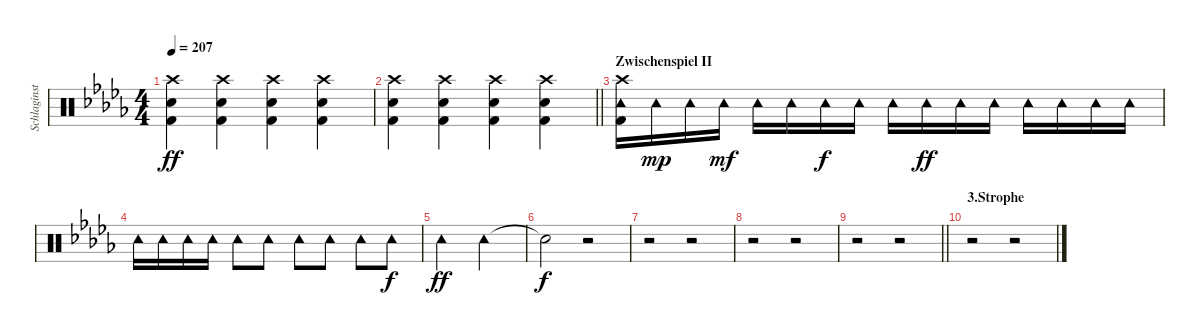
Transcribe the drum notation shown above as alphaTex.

\track ("Schlaginstrumente - Auswahl" "Schlaginst") {instrument percussion}
\staff {score}
\articulation defaults
\ts (4 4)
\tempo 207
\clef neutral
\ks bbminor
("Crash high (hit)" "Snare (hit) 2" "Kick (hit) 2").4{dy ff} ("Crash high (hit)" "Snare (hit) 2" "Kick (hit) 2").4 ("Crash high (hit)" "Snare (hit) 2" "Kick (hit) 2").4 ("Crash high (hit)" "Snare (hit) 2" "Kick (hit) 2").4 |
\barLineRight lightlight
("Crash high (hit)" "Snare (hit) 2" "Kick (hit) 2").4 ("Crash high (hit)" "Snare (hit) 2" "Kick (hit) 2").4 ("Crash high (hit)" "Snare (hit) 2" "Kick (hit) 2").4 ("Crash high (hit)" "Snare (hit) 2" "Kick (hit) 2").4 |
\section ("" "Zwischenspiel II")
("Crash high (hit)" "Tambourine (hit)" "Kick (hit) 2").16 "Tambourine (hit)".16{dy mp} "Tambourine (hit)".16 "Tambourine (hit)".16{dy mf} "Tambourine (hit)".16 "Tambourine (hit)".16 "Tambourine (hit)".16{dy f} "Tambourine (hit)".16 "Tambourine (hit)".16 "Tambourine (hit)".16{dy ff} "Tambourine (hit)".16 "Tambourine (hit)".16 "Tambourine (hit)".16 "Tambourine (hit)".16 "Tambourine (hit)".16 "Tambourine (hit)".16 |
"Tambourine (hit)".16 "Tambourine (hit)".16 "Tambourine (hit)".16 "Tambourine (hit)".16 "Tambourine (hit)".8 "Tambourine (hit)".8 "Tambourine (hit)".8 "Tambourine (hit)".8 "Tambourine (hit)".8 "Tambourine (hit)".8{dy f} |
"Tambourine (hit)".2{dy ff} "Tambourine (hit)".2 |
"Snare (hit)"{t}.2{dy f} r.2 |
r.2 r.2 |
r.2 r.2 |
\barLineRight lightlight
r.2 r.2 |
\section ("" "3.Strophe")
r.2 r.2
